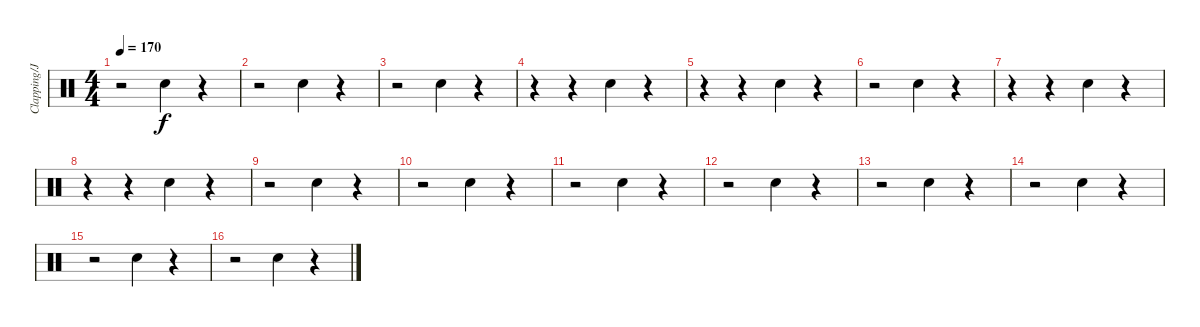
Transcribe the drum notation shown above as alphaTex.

\track ("Clapping/Jay-Z (snare)" "Clapping/J") {instrument percussion}
\staff {score}
\articulation defaults
\ts (4 4)
\tempo 170
\clef neutral
\ks c
r.2{dy f} "Hand Clap (hit)".4 r.4 |
r.2 "Hand Clap (hit)".4 r.4 |
r.2 "Hand Clap (hit)".4 r.4 |
r.4 r.4 "Hand Clap (hit)".4 r.4 |
r.4 r.4 "Hand Clap (hit)".4 r.4 |
r.2 "Hand Clap (hit)".4 r.4 |
r.4 r.4 "Hand Clap (hit)".4 r.4 |
r.4 r.4 "Hand Clap (hit)".4 r.4 |
r.2 "Hand Clap (hit)".4 r.4 |
r.2 "Hand Clap (hit)".4 r.4 |
r.2 "Hand Clap (hit)".4 r.4 |
r.2 "Hand Clap (hit)".4 r.4 |
r.2 "Hand Clap (hit)".4 r.4 |
r.2 "Hand Clap (hit)".4 r.4 |
r.2 "Hand Clap (hit)".4 r.4 |
r.2 "Hand Clap (hit)".4 r.4
